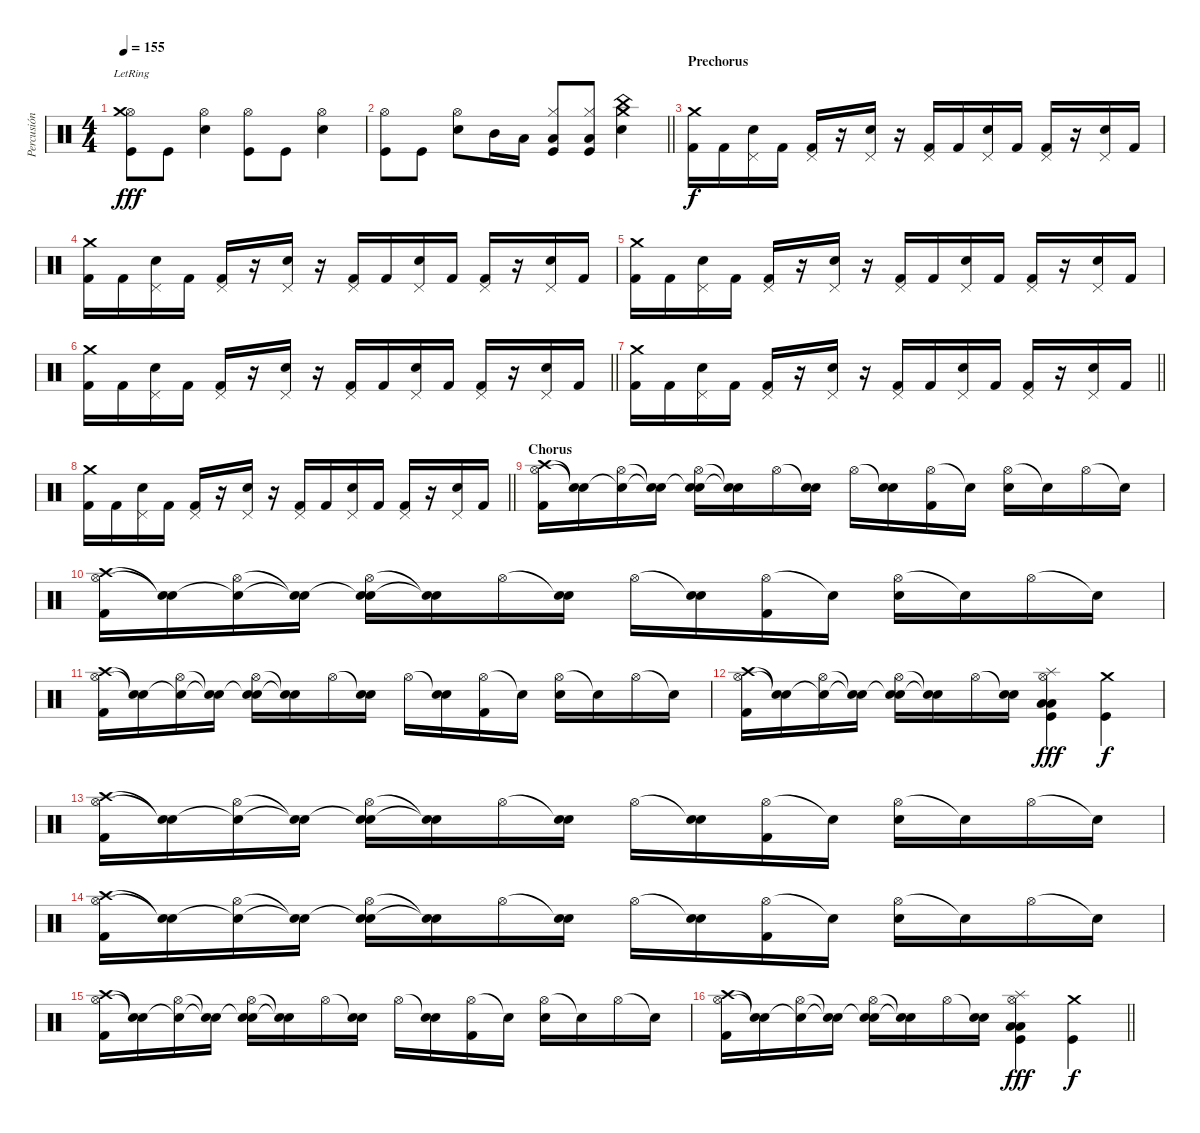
\track ("Percusión (Erik)" "Percusión ") {instrument percussion}
\staff {score}
\articulation defaults
\ts (4 4)
\tempo 155
\clef neutral
\ks c
("Hi-Hat (open)" "Crash medium (hit)"{lr} "Kick (hit)").8{dy fff} "Kick (hit)".8 ("Hi-Hat (open)" "Snare (hit) 2").4 ("Hi-Hat (open)" "Kick (hit)").8 "Kick (hit)".8 ("Hi-Hat (open)" "Snare (hit) 2").4 |
\barLineRight lightlight
("Hi-Hat (open)" "Kick (hit)").8 "Kick (hit)".8 ("Hi-Hat (open)" "Snare (hit) 2").8 "Mid Tom (hit)".16 "Low Tom (hit)".16 ("Hi-Hat (closed)" "Low Floor Tom (hit)" "Kick (hit)").8 ("Hi-Hat (closed)" "Low Floor Tom (hit)" "Kick (hit)").8 ("Crash medium (hit)" "China (hit)" "Snare (hit) 2").4 |
\section ("" "Prechorus")
("Crash medium (hit)" "Kick (hit) 2").16{dy f} "Kick (hit) 2".16 ("Pedal Hi-Hat (hit)" "Electric Snare (hit)").16 "Kick (hit) 2".16 ("Pedal Hi-Hat (hit)" "Kick (hit) 2").16 r.16 ("Pedal Hi-Hat (hit)" "Electric Snare (hit)").16 r.16 ("Pedal Hi-Hat (hit)" "Kick (hit) 2").16 "Kick (hit) 2".16 ("Pedal Hi-Hat (hit)" "Electric Snare (hit)").16 "Kick (hit) 2".16 ("Pedal Hi-Hat (hit)" "Kick (hit) 2").16 r.16 ("Pedal Hi-Hat (hit)" "Electric Snare (hit)").16 "Kick (hit) 2".16 |
("Crash medium (hit)" "Kick (hit) 2").16 "Kick (hit) 2".16 ("Pedal Hi-Hat (hit)" "Electric Snare (hit)").16 "Kick (hit) 2".16 ("Pedal Hi-Hat (hit)" "Kick (hit) 2").16 r.16 ("Pedal Hi-Hat (hit)" "Electric Snare (hit)").16 r.16 ("Pedal Hi-Hat (hit)" "Kick (hit) 2").16 "Kick (hit) 2".16 ("Pedal Hi-Hat (hit)" "Electric Snare (hit)").16 "Kick (hit) 2".16 ("Pedal Hi-Hat (hit)" "Kick (hit) 2").16 r.16 ("Pedal Hi-Hat (hit)" "Electric Snare (hit)").16 "Kick (hit) 2".16 |
("Crash medium (hit)" "Kick (hit) 2").16 "Kick (hit) 2".16 ("Pedal Hi-Hat (hit)" "Electric Snare (hit)").16 "Kick (hit) 2".16 ("Pedal Hi-Hat (hit)" "Kick (hit) 2").16 r.16 ("Pedal Hi-Hat (hit)" "Electric Snare (hit)").16 r.16 ("Pedal Hi-Hat (hit)" "Kick (hit) 2").16 "Kick (hit) 2".16 ("Pedal Hi-Hat (hit)" "Electric Snare (hit)").16 "Kick (hit) 2".16 ("Pedal Hi-Hat (hit)" "Kick (hit) 2").16 r.16 ("Pedal Hi-Hat (hit)" "Electric Snare (hit)").16 "Kick (hit) 2".16 |
\barLineRight lightlight
("Crash medium (hit)" "Kick (hit) 2").16 "Kick (hit) 2".16 ("Pedal Hi-Hat (hit)" "Electric Snare (hit)").16 "Kick (hit) 2".16 ("Pedal Hi-Hat (hit)" "Kick (hit) 2").16 r.16 ("Pedal Hi-Hat (hit)" "Electric Snare (hit)").16 r.16 ("Pedal Hi-Hat (hit)" "Kick (hit) 2").16 "Kick (hit) 2".16 ("Pedal Hi-Hat (hit)" "Electric Snare (hit)").16 "Kick (hit) 2".16 ("Pedal Hi-Hat (hit)" "Kick (hit) 2").16 r.16 ("Pedal Hi-Hat (hit)" "Electric Snare (hit)").16 "Kick (hit) 2".16 |
\barLineRight lightlight
("Crash medium (hit)" "Kick (hit) 2").16 "Kick (hit) 2".16 ("Pedal Hi-Hat (hit)" "Electric Snare (hit)").16 "Kick (hit) 2".16 ("Pedal Hi-Hat (hit)" "Kick (hit) 2").16 r.16 ("Pedal Hi-Hat (hit)" "Electric Snare (hit)").16 r.16 ("Pedal Hi-Hat (hit)" "Kick (hit) 2").16 "Kick (hit) 2".16 ("Pedal Hi-Hat (hit)" "Electric Snare (hit)").16 "Kick (hit) 2".16 ("Pedal Hi-Hat (hit)" "Kick (hit) 2").16 r.16 ("Pedal Hi-Hat (hit)" "Electric Snare (hit)").16 "Kick (hit) 2".16 |
\barLineRight lightlight
("Crash medium (hit)" "Kick (hit) 2").16 "Kick (hit) 2".16 ("Pedal Hi-Hat (hit)" "Electric Snare (hit)").16 "Kick (hit) 2".16 ("Pedal Hi-Hat (hit)" "Kick (hit) 2").16 r.16 ("Pedal Hi-Hat (hit)" "Electric Snare (hit)").16 r.16 ("Pedal Hi-Hat (hit)" "Kick (hit) 2").16 "Kick (hit) 2".16 ("Pedal Hi-Hat (hit)" "Electric Snare (hit)").16 "Kick (hit) 2".16 ("Pedal Hi-Hat (hit)" "Kick (hit) 2").16 r.16 ("Pedal Hi-Hat (hit)" "Electric Snare (hit)").16 "Kick (hit) 2".16 |
\section ("" "Chorus")
("Crash high (hit)" "Hi-Hat (open)" "Kick (hit) 2").16{volume 14} ("Snare (hit)"{t} "Snare (hit)"{t}).16 ("Snare (hit)"{t} "Hi-Hat (open)").16 ("Snare (hit)"{t} "Snare (hit)"{t}).16 ("Snare (hit)"{t} "Hi-Hat (open)" "Electric Snare (hit)").16 ("Snare (hit)"{t} "Snare (hit)"{t}).16 "Hi-Hat (open)".16 ("Snare (hit)"{t} "Electric Snare (hit)").16 "Hi-Hat (open)".16 ("Snare (hit)"{t} "Electric Snare (hit)").16 ("Hi-Hat (open)" "Kick (hit) 2").16 "Snare (hit)"{t}.16 ("Hi-Hat (open)" "Electric Snare (hit)").16 "Snare (hit)"{t}.16 "Hi-Hat (open)".16 "Snare (hit)"{t}.16 |
("Crash high (hit)" "Hi-Hat (open)" "Kick (hit) 2").16{volume 14} ("Snare (hit)"{t} "Snare (hit)"{t}).16 ("Snare (hit)"{t} "Hi-Hat (open)").16 ("Snare (hit)"{t} "Snare (hit)"{t}).16 ("Snare (hit)"{t} "Hi-Hat (open)" "Electric Snare (hit)").16 ("Snare (hit)"{t} "Snare (hit)"{t}).16 "Hi-Hat (open)".16 ("Snare (hit)"{t} "Electric Snare (hit)").16 "Hi-Hat (open)".16 ("Snare (hit)"{t} "Electric Snare (hit)").16 ("Hi-Hat (open)" "Kick (hit) 2").16 "Snare (hit)"{t}.16 ("Hi-Hat (open)" "Electric Snare (hit)").16 "Snare (hit)"{t}.16 "Hi-Hat (open)".16 "Snare (hit)"{t}.16 |
("Crash high (hit)" "Hi-Hat (open)" "Kick (hit) 2").16{volume 14} ("Snare (hit)"{t} "Snare (hit)"{t}).16 ("Snare (hit)"{t} "Hi-Hat (open)").16 ("Snare (hit)"{t} "Snare (hit)"{t}).16 ("Snare (hit)"{t} "Hi-Hat (open)" "Electric Snare (hit)").16 ("Snare (hit)"{t} "Snare (hit)"{t}).16 "Hi-Hat (open)".16 ("Snare (hit)"{t} "Electric Snare (hit)").16 "Hi-Hat (open)".16 ("Snare (hit)"{t} "Electric Snare (hit)").16 ("Hi-Hat (open)" "Kick (hit) 2").16 "Snare (hit)"{t}.16 ("Hi-Hat (open)" "Electric Snare (hit)").16 "Snare (hit)"{t}.16 "Hi-Hat (open)".16 "Snare (hit)"{t}.16 |
("Crash high (hit)" "Hi-Hat (open)" "Kick (hit) 2").16{volume 14} ("Snare (hit)"{t} "Snare (hit)"{t}).16 ("Snare (hit)"{t} "Hi-Hat (open)").16 ("Snare (hit)"{t} "Snare (hit)"{t}).16 ("Snare (hit)"{t} "Hi-Hat (open)" "Electric Snare (hit)").16 ("Snare (hit)"{t} "Snare (hit)"{t}).16 "Hi-Hat (open)".16 ("Snare (hit)"{t} "Electric Snare (hit)").16 ("Hi-Hat (open)" "Low Floor Tom (hit)" "Low Tom (hit)" "Kick (hit)" "Splash (hit)").4{dy fff} ("Crash medium (hit)" "Kick (hit)").4{dy f} |
("Crash high (hit)" "Hi-Hat (open)" "Kick (hit) 2").16{volume 14} ("Snare (hit)"{t} "Snare (hit)"{t}).16 ("Snare (hit)"{t} "Hi-Hat (open)").16 ("Snare (hit)"{t} "Snare (hit)"{t}).16 ("Snare (hit)"{t} "Hi-Hat (open)" "Electric Snare (hit)").16 ("Snare (hit)"{t} "Snare (hit)"{t}).16 "Hi-Hat (open)".16 ("Snare (hit)"{t} "Electric Snare (hit)").16 "Hi-Hat (open)".16 ("Snare (hit)"{t} "Electric Snare (hit)").16 ("Hi-Hat (open)" "Kick (hit) 2").16 "Snare (hit)"{t}.16 ("Hi-Hat (open)" "Electric Snare (hit)").16 "Snare (hit)"{t}.16 "Hi-Hat (open)".16 "Snare (hit)"{t}.16 |
("Crash high (hit)" "Hi-Hat (open)" "Kick (hit) 2").16{volume 14} ("Snare (hit)"{t} "Snare (hit)"{t}).16 ("Snare (hit)"{t} "Hi-Hat (open)").16 ("Snare (hit)"{t} "Snare (hit)"{t}).16 ("Snare (hit)"{t} "Hi-Hat (open)" "Electric Snare (hit)").16 ("Snare (hit)"{t} "Snare (hit)"{t}).16 "Hi-Hat (open)".16 ("Snare (hit)"{t} "Electric Snare (hit)").16 "Hi-Hat (open)".16 ("Snare (hit)"{t} "Electric Snare (hit)").16 ("Hi-Hat (open)" "Kick (hit) 2").16 "Snare (hit)"{t}.16 ("Hi-Hat (open)" "Electric Snare (hit)").16 "Snare (hit)"{t}.16 "Hi-Hat (open)".16 "Snare (hit)"{t}.16 |
("Crash high (hit)" "Hi-Hat (open)" "Kick (hit) 2").16{volume 14} ("Snare (hit)"{t} "Snare (hit)"{t}).16 ("Snare (hit)"{t} "Hi-Hat (open)").16 ("Snare (hit)"{t} "Snare (hit)"{t}).16 ("Snare (hit)"{t} "Hi-Hat (open)" "Electric Snare (hit)").16 ("Snare (hit)"{t} "Snare (hit)"{t}).16 "Hi-Hat (open)".16 ("Snare (hit)"{t} "Electric Snare (hit)").16 "Hi-Hat (open)".16 ("Snare (hit)"{t} "Electric Snare (hit)").16 ("Hi-Hat (open)" "Kick (hit) 2").16 "Snare (hit)"{t}.16 ("Hi-Hat (open)" "Electric Snare (hit)").16 "Snare (hit)"{t}.16 "Hi-Hat (open)".16 "Snare (hit)"{t}.16 |
\barLineRight lightlight
("Crash high (hit)" "Hi-Hat (open)" "Kick (hit) 2").16{volume 14} ("Snare (hit)"{t} "Snare (hit)"{t}).16 ("Snare (hit)"{t} "Hi-Hat (open)").16 ("Snare (hit)"{t} "Snare (hit)"{t}).16 ("Snare (hit)"{t} "Hi-Hat (open)" "Electric Snare (hit)").16 ("Snare (hit)"{t} "Snare (hit)"{t}).16 "Hi-Hat (open)".16 ("Snare (hit)"{t} "Electric Snare (hit)").16 ("Hi-Hat (open)" "Low Floor Tom (hit)" "Low Tom (hit)" "Kick (hit)" "Splash (hit)").4{dy fff} ("Crash medium (hit)" "Kick (hit)").4{dy f}
